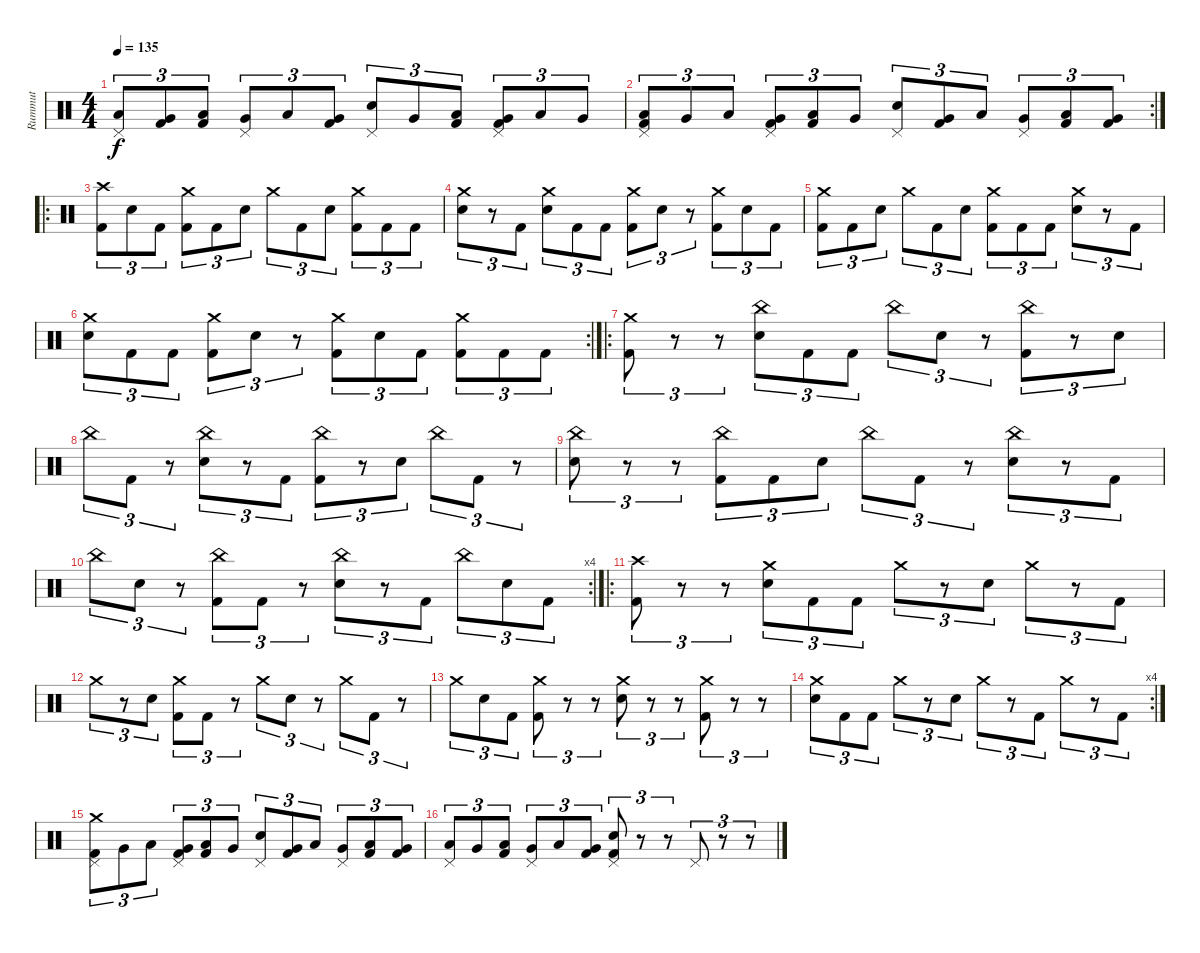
\track ("Rummut" "Rummut") {instrument percussion}
\staff {score}
\articulation defaults
\ts (4 4)
\tempo 135
\clef neutral
\ks c
("Pedal Hi-Hat (hit)" "Low Floor Tom (hit)").8{tu (3 2) dy f} ("Very Low Tom (hit)" "Kick (hit) 2").8{tu (3 2)} ("Low Floor Tom (hit)" "Kick (hit) 2").8{tu (3 2)} ("Pedal Hi-Hat (hit)" "Very Low Tom (hit)").8{tu (3 2)} "Low Floor Tom (hit)".8{tu (3 2)} ("Very Low Tom (hit)" "Kick (hit) 2").8{tu (3 2)} ("Pedal Hi-Hat (hit)" "Electric Snare (hit)").8{tu (3 2)} "Very Low Tom (hit)".8{tu (3 2)} ("Low Floor Tom (hit)" "Kick (hit) 2").8{tu (3 2)} ("Pedal Hi-Hat (hit)" "Very Low Tom (hit)" "Kick (hit) 2").8{tu (3 2)} "Low Floor Tom (hit)".8{tu (3 2)} "Very Low Tom (hit)".8{tu (3 2)} |
\rc 2
("Pedal Hi-Hat (hit)" "Low Floor Tom (hit)" "Kick (hit) 2").8{tu (3 2)} "Very Low Tom (hit)".8{tu (3 2)} "Low Floor Tom (hit)".8{tu (3 2)} ("Pedal Hi-Hat (hit)" "Very Low Tom (hit)" "Kick (hit) 2").8{tu (3 2)} ("Low Floor Tom (hit)" "Kick (hit) 2").8{tu (3 2)} "Very Low Tom (hit)".8{tu (3 2)} ("Pedal Hi-Hat (hit)" "Electric Snare (hit)").8{tu (3 2)} ("Very Low Tom (hit)" "Kick (hit) 2").8{tu (3 2)} "Low Floor Tom (hit)".8{tu (3 2)} ("Pedal Hi-Hat (hit)" "Very Low Tom (hit)").8{tu (3 2)} ("Low Floor Tom (hit)" "Kick (hit) 2").8{tu (3 2)} ("Very Low Tom (hit)" "Kick (hit) 2").8{tu (3 2)} |
\ro
("Crash high (hit)" "Kick (hit) 2").8{tu (3 2)} "Electric Snare (hit)".8{tu (3 2)} "Kick (hit) 2".8{tu (3 2)} ("Crash medium (hit)" "Kick (hit) 2").8{tu (3 2)} "Kick (hit) 2".8{tu (3 2)} "Electric Snare (hit)".8{tu (3 2)} "Crash medium (hit)".8{tu (3 2)} "Kick (hit) 2".8{tu (3 2)} "Electric Snare (hit)".8{tu (3 2)} ("Crash medium (hit)" "Kick (hit) 2").8{tu (3 2)} "Kick (hit) 2".8{tu (3 2)} "Kick (hit) 2".8{tu (3 2)} |
("Crash medium (hit)" "Electric Snare (hit)").8{tu (3 2)} r.8{tu (3 2)} "Kick (hit) 2".8{tu (3 2)} ("Crash medium (hit)" "Electric Snare (hit)").8{tu (3 2)} "Kick (hit) 2".8{tu (3 2)} "Kick (hit) 2".8{tu (3 2)} ("Crash medium (hit)" "Kick (hit) 2").8{tu (3 2)} "Electric Snare (hit)".8{tu (3 2)} r.8{tu (3 2)} ("Crash medium (hit)" "Kick (hit) 2").8{tu (3 2)} "Electric Snare (hit)".8{tu (3 2)} "Kick (hit) 2".8{tu (3 2)} |
("Crash medium (hit)" "Kick (hit) 2").8{tu (3 2)} "Kick (hit) 2".8{tu (3 2)} "Electric Snare (hit)".8{tu (3 2)} "Crash medium (hit)".8{tu (3 2)} "Kick (hit) 2".8{tu (3 2)} "Electric Snare (hit)".8{tu (3 2)} ("Crash medium (hit)" "Kick (hit) 2").8{tu (3 2)} "Kick (hit) 2".8{tu (3 2)} "Kick (hit) 2".8{tu (3 2)} ("Crash medium (hit)" "Electric Snare (hit)").8{tu (3 2)} r.8{tu (3 2)} "Kick (hit) 2".8{tu (3 2)} |
\rc 2
("Crash medium (hit)" "Electric Snare (hit)").8{tu (3 2)} "Kick (hit) 2".8{tu (3 2)} "Kick (hit) 2".8{tu (3 2)} ("Crash medium (hit)" "Kick (hit) 2").8{tu (3 2)} "Electric Snare (hit)".8{tu (3 2)} r.8{tu (3 2)} ("Crash medium (hit)" "Kick (hit) 2").8{tu (3 2)} "Electric Snare (hit)".8{tu (3 2)} "Kick (hit) 2".8{tu (3 2)} ("Crash medium (hit)" "Kick (hit) 2").8{tu (3 2)} "Kick (hit) 2".8{tu (3 2)} "Kick (hit) 2".8{tu (3 2)} |
\ro
("Crash medium (hit)" "Kick (hit) 2").8{tu (3 2)} r.8{tu (3 2)} r.8{tu (3 2)} ("China (hit)" "Electric Snare (hit)").8{tu (3 2)} "Kick (hit) 2".8{tu (3 2)} "Kick (hit) 2".8{tu (3 2)} "China (hit)".8{tu (3 2)} "Electric Snare (hit)".8{tu (3 2)} r.8{tu (3 2)} ("China (hit)" "Kick (hit) 2").8{tu (3 2)} r.8{tu (3 2)} "Electric Snare (hit)".8{tu (3 2)} |
"China (hit)".8{tu (3 2)} "Kick (hit) 2".8{tu (3 2)} r.8{tu (3 2)} ("China (hit)" "Electric Snare (hit)").8{tu (3 2)} r.8{tu (3 2)} "Kick (hit) 2".8{tu (3 2)} ("China (hit)" "Kick (hit) 2").8{tu (3 2)} r.8{tu (3 2)} "Electric Snare (hit)".8{tu (3 2)} "China (hit)".8{tu (3 2)} "Kick (hit) 2".8{tu (3 2)} r.8{tu (3 2)} |
("China (hit)" "Electric Snare (hit)").8{tu (3 2)} r.8{tu (3 2)} r.8{tu (3 2)} ("China (hit)" "Kick (hit) 2").8{tu (3 2)} "Kick (hit) 2".8{tu (3 2)} "Electric Snare (hit)".8{tu (3 2)} "China (hit)".8{tu (3 2)} "Kick (hit) 2".8{tu (3 2)} r.8{tu (3 2)} ("China (hit)" "Electric Snare (hit)").8{tu (3 2)} r.8{tu (3 2)} "Kick (hit) 2".8{tu (3 2)} |
\rc 4 "China (hit)".8{tu (3 2)} "Electric Snare (hit)".8{tu (3 2)}
r.8{tu (3 2)} ("China (hit)" "Kick (hit) 2").8{tu (3 2)} "Kick (hit) 2".8{tu (3 2)} r.8{tu (3 2)} ("China (hit)" "Electric Snare (hit)").8{tu (3 2)} r.8{tu (3 2)} "Kick (hit) 2".8{tu (3 2)} "China (hit)".8{tu (3 2)} "Electric Snare (hit)".8{tu (3 2)} "Kick (hit) 2".8{tu (3 2)} |
\ro
("Crash high (hit)" "Kick (hit) 2").8{tu (3 2)} r.8{tu (3 2)} r.8{tu (3 2)} ("Crash medium (hit)" "Electric Snare (hit)").8{tu (3 2)} "Kick (hit) 2".8{tu (3 2)} "Kick (hit) 2".8{tu (3 2)} "Crash medium (hit)".8{tu (3 2)} r.8{tu (3 2)} "Electric Snare (hit)".8{tu (3 2)} "Crash medium (hit)".8{tu (3 2)} r.8{tu (3 2)} "Kick (hit) 2".8{tu (3 2)} |
"Crash medium (hit)".8{tu (3 2)} r.8{tu (3 2)} "Electric Snare (hit)".8{tu (3 2)} ("Crash medium (hit)" "Kick (hit) 2").8{tu (3 2)} "Kick (hit) 2".8{tu (3 2)} r.8{tu (3 2)} "Crash medium (hit)".8{tu (3 2)} "Electric Snare (hit)".8{tu (3 2)} r.8{tu (3 2)} "Crash medium (hit)".8{tu (3 2)} "Kick (hit) 2".8{tu (3 2)} r.8{tu (3 2)} |
"Crash medium (hit)".8{tu (3 2)} "Electric Snare (hit)".8{tu (3 2)} "Kick (hit) 2".8{tu (3 2)} ("Crash medium (hit)" "Kick (hit) 2").8{tu (3 2)} r.8{tu (3 2)} r.8{tu (3 2)} ("Crash medium (hit)" "Electric Snare (hit)").8{tu (3 2)} r.8{tu (3 2)} r.8{tu (3 2)} ("Crash medium (hit)" "Kick (hit) 2").8{tu (3 2)} r.8{tu (3 2)} r.8{tu (3 2)} |
\rc 4
("Crash medium (hit)" "Electric Snare (hit)").8{tu (3 2)} "Kick (hit) 2".8{tu (3 2)} "Kick (hit) 2".8{tu (3 2)} "Crash medium (hit)".8{tu (3 2)} r.8{tu (3 2)} "Electric Snare (hit)".8{tu (3 2)} "Crash medium (hit)".8{tu (3 2)} r.8{tu (3 2)} "Kick (hit) 2".8{tu (3 2)} "Crash medium (hit)".8{tu (3 2)} r.8{tu (3 2)} "Kick (hit) 2".8{tu (3 2)} |
("Crash medium (hit)" "Pedal Hi-Hat (hit)" "Kick (hit) 2").8{tu (3 2)} "Very Low Tom (hit)".8{tu (3 2)} "Low Floor Tom (hit)".8{tu (3 2)} ("Pedal Hi-Hat (hit)" "Very Low Tom (hit)" "Kick (hit) 2").8{tu (3 2)} ("Low Floor Tom (hit)" "Kick (hit) 2").8{tu (3 2)} "Very Low Tom (hit)".8{tu (3 2)} ("Pedal Hi-Hat (hit)" "Electric Snare (hit)").8{tu (3 2)} ("Very Low Tom (hit)" "Kick (hit) 2").8{tu (3 2)} "Low Floor Tom (hit)".8{tu (3 2)} ("Pedal Hi-Hat (hit)" "Very Low Tom (hit)").8{tu (3 2)} ("Low Floor Tom (hit)" "Kick (hit) 2").8{tu (3 2)} ("Very Low Tom (hit)" "Kick (hit) 2").8{tu (3 2)} |
("Pedal Hi-Hat (hit)" "Low Floor Tom (hit)").8{tu (3 2)} "Very Low Tom (hit)".8{tu (3 2)} ("Low Floor Tom (hit)" "Kick (hit) 2").8{tu (3 2)} ("Pedal Hi-Hat (hit)" "Very Low Tom (hit)").8{tu (3 2)} "Low Floor Tom (hit)".8{tu (3 2)} ("Very Low Tom (hit)" "Kick (hit) 2").8{tu (3 2)} ("Pedal Hi-Hat (hit)" "Electric Snare (hit)" "Kick (hit) 2").8{tu (3 2)} r.8{tu (3 2)} r.8{tu (3 2)} "Pedal Hi-Hat (hit)".8{tu (3 2)} r.8{tu (3 2)} r.8{tu (3 2)}
